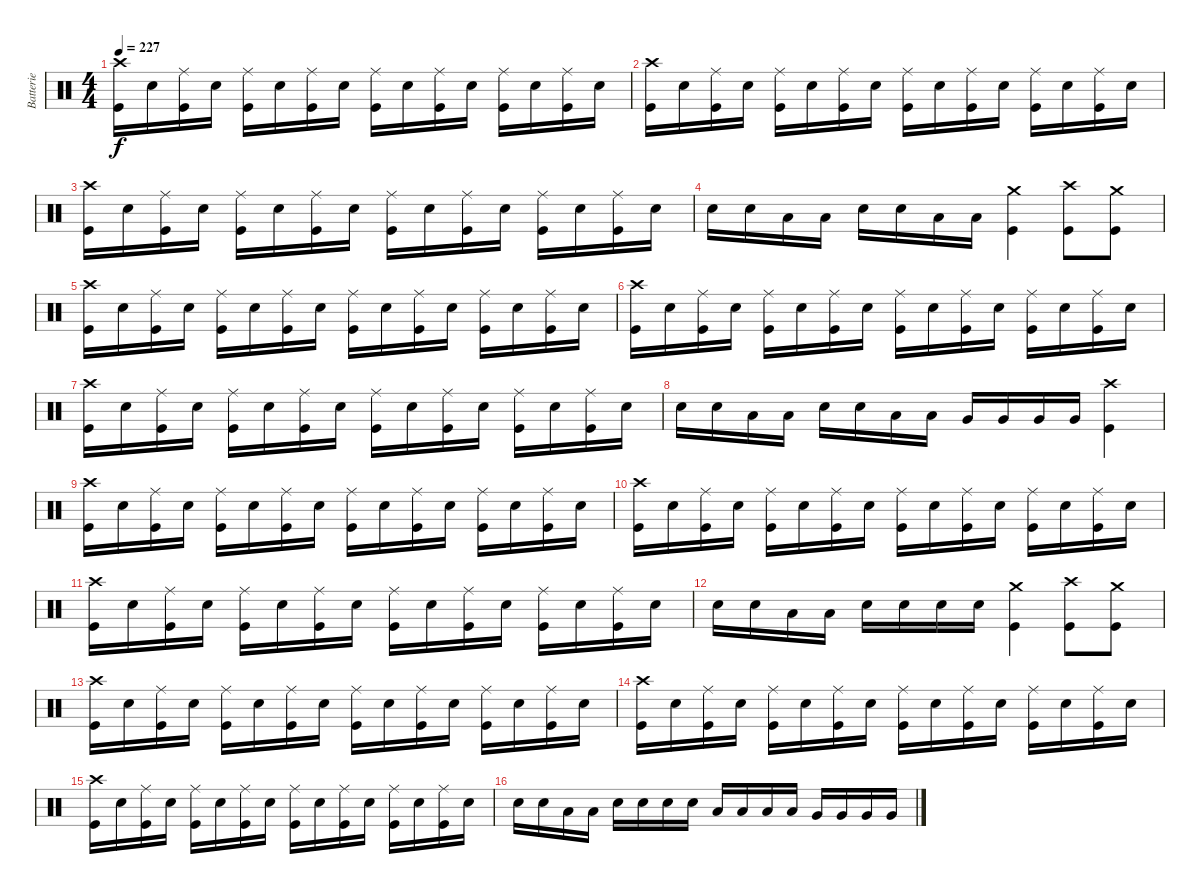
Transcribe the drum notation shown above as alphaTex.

\track ("Batterie" "Batterie") {instrument percussion}
\staff {score}
\articulation defaults
\ts (4 4)
\tempo 227
\clef neutral
\ks c
("Crash high (hit)" "Kick (hit)").16{dy f} "Electric Snare (hit)".16 ("Ride (middle)" "Kick (hit)").16 "Electric Snare (hit)".16 ("Ride (middle)" "Kick (hit)").16 "Electric Snare (hit)".16 ("Ride (middle)" "Kick (hit)").16 "Electric Snare (hit)".16 ("Ride (middle)" "Kick (hit)").16 "Electric Snare (hit)".16 ("Ride (middle)" "Kick (hit)").16 "Electric Snare (hit)".16 ("Ride (middle)" "Kick (hit)").16 "Electric Snare (hit)".16 ("Ride (middle)" "Kick (hit)").16 "Electric Snare (hit)".16 |
("Crash high (hit)" "Kick (hit)").16 "Electric Snare (hit)".16 ("Ride (middle)" "Kick (hit)").16 "Electric Snare (hit)".16 ("Ride (middle)" "Kick (hit)").16 "Electric Snare (hit)".16 ("Ride (middle)" "Kick (hit)").16 "Electric Snare (hit)".16 ("Ride (middle)" "Kick (hit)").16 "Electric Snare (hit)".16 ("Ride (middle)" "Kick (hit)").16 "Electric Snare (hit)".16 ("Ride (middle)" "Kick (hit)").16 "Electric Snare (hit)".16 ("Ride (middle)" "Kick (hit)").16 "Electric Snare (hit)".16 |
("Crash high (hit)" "Kick (hit)").16 "Electric Snare (hit)".16 ("Ride (middle)" "Kick (hit)").16 "Electric Snare (hit)".16 ("Ride (middle)" "Kick (hit)").16 "Electric Snare (hit)".16 ("Ride (middle)" "Kick (hit)").16 "Electric Snare (hit)".16 ("Ride (middle)" "Kick (hit)").16 "Electric Snare (hit)".16 ("Ride (middle)" "Kick (hit)").16 "Electric Snare (hit)".16 ("Ride (middle)" "Kick (hit)").16 "Electric Snare (hit)".16 ("Ride (middle)" "Kick (hit)").16 "Electric Snare (hit)".16 |
"Electric Snare (hit)".16 "Electric Snare (hit)".16 "Low Tom (hit)".16 "Low Tom (hit)".16 "Electric Snare (hit)".16 "Electric Snare (hit)".16 "Low Tom (hit)".16 "Low Tom (hit)".16 ("Crash medium (hit)" "Kick (hit)").4 ("Crash high (hit)" "Kick (hit)").8 ("Crash medium (hit)" "Kick (hit)").8 |
("Crash high (hit)" "Kick (hit)").16 "Electric Snare (hit)".16 ("Ride (middle)" "Kick (hit)").16 "Electric Snare (hit)".16 ("Ride (middle)" "Kick (hit)").16 "Electric Snare (hit)".16 ("Ride (middle)" "Kick (hit)").16 "Electric Snare (hit)".16 ("Ride (middle)" "Kick (hit)").16 "Electric Snare (hit)".16 ("Ride (middle)" "Kick (hit)").16 "Electric Snare (hit)".16 ("Ride (middle)" "Kick (hit)").16 "Electric Snare (hit)".16 ("Ride (middle)" "Kick (hit)").16 "Electric Snare (hit)".16 |
("Crash high (hit)" "Kick (hit)").16 "Electric Snare (hit)".16 ("Ride (middle)" "Kick (hit)").16 "Electric Snare (hit)".16 ("Ride (middle)" "Kick (hit)").16 "Electric Snare (hit)".16 ("Ride (middle)" "Kick (hit)").16 "Electric Snare (hit)".16 ("Ride (middle)" "Kick (hit)").16 "Electric Snare (hit)".16 ("Ride (middle)" "Kick (hit)").16 "Electric Snare (hit)".16 ("Ride (middle)" "Kick (hit)").16 "Electric Snare (hit)".16 ("Ride (middle)" "Kick (hit)").16 "Electric Snare (hit)".16 |
("Crash high (hit)" "Kick (hit)").16 "Electric Snare (hit)".16 ("Ride (middle)" "Kick (hit)").16 "Electric Snare (hit)".16 ("Ride (middle)" "Kick (hit)").16 "Electric Snare (hit)".16 ("Ride (middle)" "Kick (hit)").16 "Electric Snare (hit)".16 ("Ride (middle)" "Kick (hit)").16 "Electric Snare (hit)".16 ("Ride (middle)" "Kick (hit)").16 "Electric Snare (hit)".16 ("Ride (middle)" "Kick (hit)").16 "Electric Snare (hit)".16 ("Ride (middle)" "Kick (hit)").16 "Electric Snare (hit)".16 |
"Electric Snare (hit)".16 "Electric Snare (hit)".16 "Low Tom (hit)".16 "Low Tom (hit)".16 "Electric Snare (hit)".16 "Electric Snare (hit)".16 "Low Tom (hit)".16 "Low Tom (hit)".16 "Very Low Tom (hit)".16 "Very Low Tom (hit)".16 "Very Low Tom (hit)".16 "Very Low Tom (hit)".16 ("Crash high (hit)" "Kick (hit)").4 |
("Crash high (hit)" "Kick (hit)").16 "Electric Snare (hit)".16 ("Ride (middle)" "Kick (hit)").16 "Electric Snare (hit)".16 ("Ride (middle)" "Kick (hit)").16 "Electric Snare (hit)".16 ("Ride (middle)" "Kick (hit)").16 "Electric Snare (hit)".16 ("Ride (middle)" "Kick (hit)").16 "Electric Snare (hit)".16 ("Ride (middle)" "Kick (hit)").16 "Electric Snare (hit)".16 ("Ride (middle)" "Kick (hit)").16 "Electric Snare (hit)".16 ("Ride (middle)" "Kick (hit)").16 "Electric Snare (hit)".16 |
("Crash high (hit)" "Kick (hit)").16 "Electric Snare (hit)".16 ("Ride (middle)" "Kick (hit)").16 "Electric Snare (hit)".16 ("Ride (middle)" "Kick (hit)").16 "Electric Snare (hit)".16 ("Ride (middle)" "Kick (hit)").16 "Electric Snare (hit)".16 ("Ride (middle)" "Kick (hit)").16 "Electric Snare (hit)".16 ("Ride (middle)" "Kick (hit)").16 "Electric Snare (hit)".16 ("Ride (middle)" "Kick (hit)").16 "Electric Snare (hit)".16 ("Ride (middle)" "Kick (hit)").16 "Electric Snare (hit)".16 |
("Crash high (hit)" "Kick (hit)").16 "Electric Snare (hit)".16 ("Ride (middle)" "Kick (hit)").16 "Electric Snare (hit)".16 ("Ride (middle)" "Kick (hit)").16 "Electric Snare (hit)".16 ("Ride (middle)" "Kick (hit)").16 "Electric Snare (hit)".16 ("Ride (middle)" "Kick (hit)").16 "Electric Snare (hit)".16 ("Ride (middle)" "Kick (hit)").16 "Electric Snare (hit)".16 ("Ride (middle)" "Kick (hit)").16 "Electric Snare (hit)".16 ("Ride (middle)" "Kick (hit)").16 "Electric Snare (hit)".16 |
"Electric Snare (hit)".16 "Electric Snare (hit)".16 "Low Tom (hit)".16 "Low Tom (hit)".16 "Electric Snare (hit)".16 "Electric Snare (hit)".16 "Electric Snare (hit)".16 "Electric Snare (hit)".16 ("Crash medium (hit)" "Kick (hit)").4 ("Crash high (hit)" "Kick (hit)").8 ("Crash medium (hit)" "Kick (hit)").8 |
("Crash high (hit)" "Kick (hit)").16 "Electric Snare (hit)".16 ("Ride (middle)" "Kick (hit)").16 "Electric Snare (hit)".16 ("Ride (middle)" "Kick (hit)").16 "Electric Snare (hit)".16 ("Ride (middle)" "Kick (hit)").16 "Electric Snare (hit)".16 ("Ride (middle)" "Kick (hit)").16 "Electric Snare (hit)".16 ("Ride (middle)" "Kick (hit)").16 "Electric Snare (hit)".16 ("Ride (middle)" "Kick (hit)").16 "Electric Snare (hit)".16 ("Ride (middle)" "Kick (hit)").16 "Electric Snare (hit)".16 |
("Crash high (hit)" "Kick (hit)").16 "Electric Snare (hit)".16 ("Ride (middle)" "Kick (hit)").16 "Electric Snare (hit)".16 ("Ride (middle)" "Kick (hit)").16 "Electric Snare (hit)".16 ("Ride (middle)" "Kick (hit)").16 "Electric Snare (hit)".16 ("Ride (middle)" "Kick (hit)").16 "Electric Snare (hit)".16 ("Ride (middle)" "Kick (hit)").16 "Electric Snare (hit)".16 ("Ride (middle)" "Kick (hit)").16 "Electric Snare (hit)".16 ("Ride (middle)" "Kick (hit)").16 "Electric Snare (hit)".16 |
("Crash high (hit)" "Kick (hit)").16 "Electric Snare (hit)".16 ("Ride (middle)" "Kick (hit)").16 "Electric Snare (hit)".16 ("Ride (middle)" "Kick (hit)").16 "Electric Snare (hit)".16 ("Ride (middle)" "Kick (hit)").16 "Electric Snare (hit)".16 ("Ride (middle)" "Kick (hit)").16 "Electric Snare (hit)".16 ("Ride (middle)" "Kick (hit)").16 "Electric Snare (hit)".16 ("Ride (middle)" "Kick (hit)").16 "Electric Snare (hit)".16 ("Ride (middle)" "Kick (hit)").16 "Electric Snare (hit)".16 |
"Electric Snare (hit)".16 "Electric Snare (hit)".16 "Low Tom (hit)".16 "Low Tom (hit)".16 "Electric Snare (hit)".16 "Electric Snare (hit)".16 "Electric Snare (hit)".16 "Electric Snare (hit)".16 "Low Tom (hit)".16 "Low Tom (hit)".16 "Low Tom (hit)".16 "Low Tom (hit)".16 "Very Low Tom (hit)".16 "Very Low Tom (hit)".16 "Very Low Tom (hit)".16 "Very Low Tom (hit)".16
